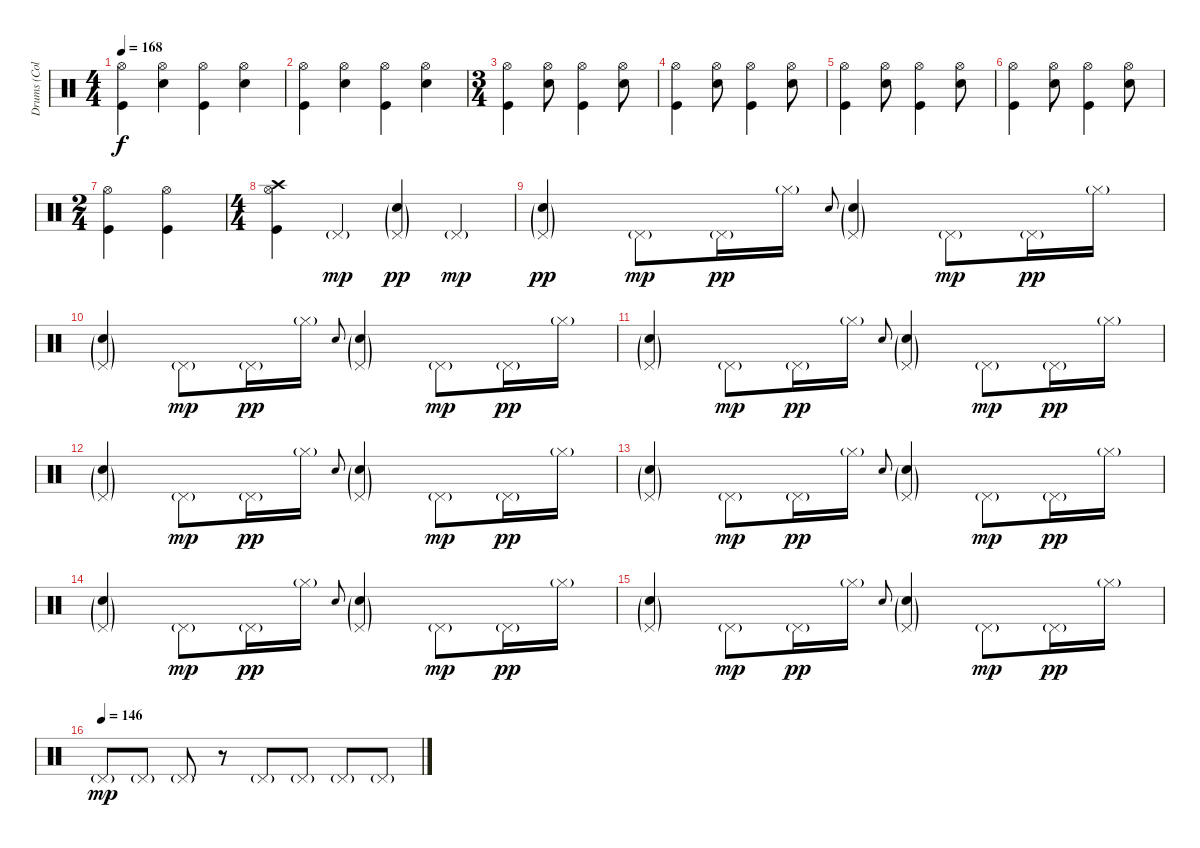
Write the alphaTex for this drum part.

\track ("Drums (Collins)" "Drums (Col") {instrument percussion}
\staff {score}
\articulation defaults
\ts (4 4)
\tempo 168
\clef neutral
\ks c
("Hi-Hat (open)" "Kick (hit)").4{dy f} ("Hi-Hat (open)" "Snare (hit) 2").4 ("Hi-Hat (open)" "Kick (hit)").4 ("Hi-Hat (open)" "Snare (hit) 2").4 |
("Hi-Hat (open)" "Kick (hit)").4 ("Hi-Hat (open)" "Snare (hit) 2").4 ("Hi-Hat (open)" "Kick (hit)").4 ("Hi-Hat (open)" "Snare (hit) 2").4 |
\ts (3 4)
("Hi-Hat (open)" "Kick (hit)").4 ("Hi-Hat (open)" "Snare (hit) 2").8 ("Hi-Hat (open)" "Kick (hit)").4 ("Hi-Hat (open)" "Snare (hit) 2").8 |
("Hi-Hat (open)" "Kick (hit)").4 ("Hi-Hat (open)" "Snare (hit) 2").8 ("Hi-Hat (open)" "Kick (hit)").4 ("Hi-Hat (open)" "Snare (hit) 2").8 |
("Hi-Hat (open)" "Kick (hit)").4 ("Hi-Hat (open)" "Snare (hit) 2").8 ("Hi-Hat (open)" "Kick (hit)").4 ("Hi-Hat (open)" "Snare (hit) 2").8 |
("Hi-Hat (open)" "Kick (hit)").4 ("Hi-Hat (open)" "Snare (hit) 2").8 ("Hi-Hat (open)" "Kick (hit)").4 ("Hi-Hat (open)" "Snare (hit) 2").8 |
\ts (2 4)
("Hi-Hat (open)" "Kick (hit)").4 ("Hi-Hat (open)" "Kick (hit)").4 |
\ts (4 4)
("Crash high (hit)" "Hi-Hat (open)" "Kick (hit)").4 "Pedal Hi-Hat (hit)"{g}.4{dy mp} ("Pedal Hi-Hat (hit)"{g} "Snare (hit) 2"{g}).4{dy pp} "Pedal Hi-Hat (hit)"{g}.4{dy mp} |
("Pedal Hi-Hat (hit)"{g} "Snare (hit) 2"{g}).4{dy pp} "Pedal Hi-Hat (hit)"{g}.8{dy mp} "Pedal Hi-Hat (hit)"{g}.16{dy pp} "Hi-Hat (closed)"{g}.16 "Snare (hit) 2".8{gr onbeat} ("Pedal Hi-Hat (hit)"{g} "Snare (hit) 2"{g}).4 "Pedal Hi-Hat (hit)"{g}.8{dy mp} "Pedal Hi-Hat (hit)"{g}.16{dy pp} "Hi-Hat (closed)"{g}.16 |
("Pedal Hi-Hat (hit)"{g} "Snare (hit) 2"{g}).4 "Pedal Hi-Hat (hit)"{g}.8{dy mp} "Pedal Hi-Hat (hit)"{g}.16{dy pp} "Hi-Hat (closed)"{g}.16 "Snare (hit) 2".8{gr onbeat} ("Pedal Hi-Hat (hit)"{g} "Snare (hit) 2"{g}).4 "Pedal Hi-Hat (hit)"{g}.8{dy mp} "Pedal Hi-Hat (hit)"{g}.16{dy pp} "Hi-Hat (closed)"{g}.16 |
("Pedal Hi-Hat (hit)"{g} "Snare (hit) 2"{g}).4 "Pedal Hi-Hat (hit)"{g}.8{dy mp} "Pedal Hi-Hat (hit)"{g}.16{dy pp} "Hi-Hat (closed)"{g}.16 "Snare (hit) 2".8{gr onbeat} ("Pedal Hi-Hat (hit)"{g} "Snare (hit) 2"{g}).4 "Pedal Hi-Hat (hit)"{g}.8{dy mp} "Pedal Hi-Hat (hit)"{g}.16{dy pp} "Hi-Hat (closed)"{g}.16 |
("Pedal Hi-Hat (hit)"{g} "Snare (hit) 2"{g}).4 "Pedal Hi-Hat (hit)"{g}.8{dy mp} "Pedal Hi-Hat (hit)"{g}.16{dy pp} "Hi-Hat (closed)"{g}.16 "Snare (hit) 2".8{gr onbeat} ("Pedal Hi-Hat (hit)"{g} "Snare (hit) 2"{g}).4 "Pedal Hi-Hat (hit)"{g}.8{dy mp} "Pedal Hi-Hat (hit)"{g}.16{dy pp} "Hi-Hat (closed)"{g}.16 |
("Pedal Hi-Hat (hit)"{g} "Snare (hit) 2"{g}).4 "Pedal Hi-Hat (hit)"{g}.8{dy mp} "Pedal Hi-Hat (hit)"{g}.16{dy pp} "Hi-Hat (closed)"{g}.16 "Snare (hit) 2".8{gr onbeat} ("Pedal Hi-Hat (hit)"{g} "Snare (hit) 2"{g}).4 "Pedal Hi-Hat (hit)"{g}.8{dy mp} "Pedal Hi-Hat (hit)"{g}.16{dy pp} "Hi-Hat (closed)"{g}.16 |
("Pedal Hi-Hat (hit)"{g} "Snare (hit) 2"{g}).4 "Pedal Hi-Hat (hit)"{g}.8{dy mp} "Pedal Hi-Hat (hit)"{g}.16{dy pp} "Hi-Hat (closed)"{g}.16 "Snare (hit) 2".8{gr onbeat} ("Pedal Hi-Hat (hit)"{g} "Snare (hit) 2"{g}).4 "Pedal Hi-Hat (hit)"{g}.8{dy mp} "Pedal Hi-Hat (hit)"{g}.16{dy pp} "Hi-Hat (closed)"{g}.16 |
("Pedal Hi-Hat (hit)"{g} "Snare (hit) 2"{g}).4 "Pedal Hi-Hat (hit)"{g}.8{dy mp} "Pedal Hi-Hat (hit)"{g}.16{dy pp} "Hi-Hat (closed)"{g}.16 "Snare (hit) 2".8{gr onbeat} ("Pedal Hi-Hat (hit)"{g} "Snare (hit) 2"{g}).4 "Pedal Hi-Hat (hit)"{g}.8{dy mp} "Pedal Hi-Hat (hit)"{g}.16{dy pp} "Hi-Hat (closed)"{g}.16 |
\tempo (146)
"Pedal Hi-Hat (hit)"{g}.8{dy mp} "Pedal Hi-Hat (hit)"{g}.8 "Pedal Hi-Hat (hit)"{g}.8 r.8 "Pedal Hi-Hat (hit)"{g}.8 "Pedal Hi-Hat (hit)"{g}.8 "Pedal Hi-Hat (hit)"{g}.8 "Pedal Hi-Hat (hit)"{g}.8
